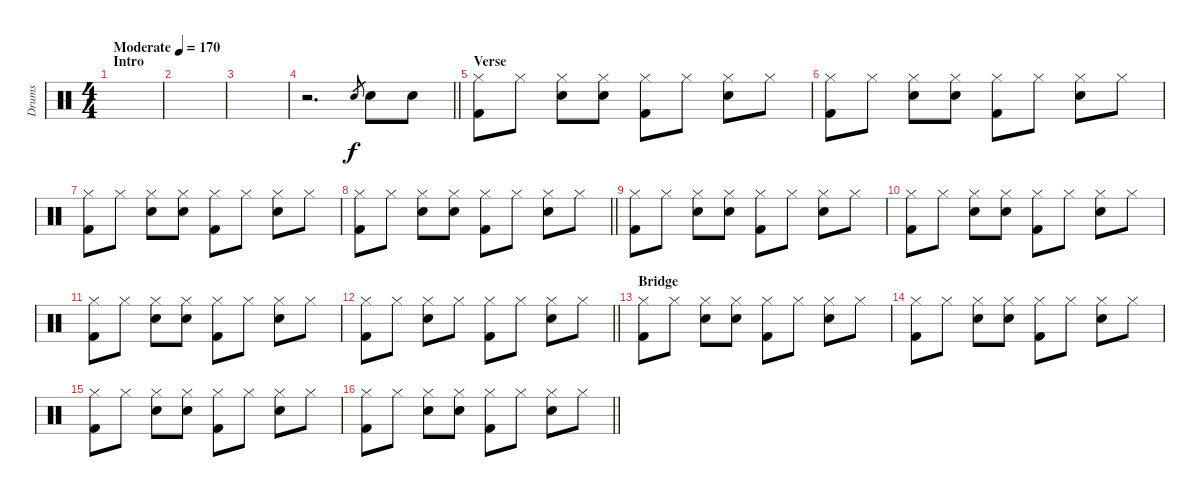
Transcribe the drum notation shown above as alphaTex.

\track ("Drums" "Drums") {instrument percussion}
\staff {score}
\articulation defaults
\ts (4 4)
\section ("" "Intro")
\tempo (170 "Moderate")
\clef neutral
\ks c
|
|
|
\barLineRight lightlight
r.2{d} "Snare (hit) 2".8{gr} "Snare (hit) 2".8 "Snare (hit) 2".8 |
\section ("" "Verse")
("Hi-Hat (closed)" "Kick (hit) 2").8 "Hi-Hat (closed)".8 ("Hi-Hat (closed)" "Snare (hit) 2").8 ("Hi-Hat (closed)" "Snare (hit) 2").8 ("Hi-Hat (closed)" "Kick (hit) 2").8 "Hi-Hat (closed)".8 ("Hi-Hat (closed)" "Snare (hit) 2").8 "Hi-Hat (closed)".8 |
("Hi-Hat (closed)" "Kick (hit) 2").8 "Hi-Hat (closed)".8 ("Hi-Hat (closed)" "Snare (hit) 2").8 ("Hi-Hat (closed)" "Snare (hit) 2").8 ("Hi-Hat (closed)" "Kick (hit) 2").8 "Hi-Hat (closed)".8 ("Hi-Hat (closed)" "Snare (hit) 2").8 "Hi-Hat (closed)".8 |
("Hi-Hat (closed)" "Kick (hit) 2").8 "Hi-Hat (closed)".8 ("Hi-Hat (closed)" "Snare (hit) 2").8 ("Hi-Hat (closed)" "Snare (hit) 2").8 ("Hi-Hat (closed)" "Kick (hit) 2").8 "Hi-Hat (closed)".8 ("Hi-Hat (closed)" "Snare (hit) 2").8 "Hi-Hat (closed)".8 |
\barLineRight lightlight
("Hi-Hat (closed)" "Kick (hit) 2").8 "Hi-Hat (closed)".8 ("Hi-Hat (closed)" "Snare (hit) 2").8 ("Hi-Hat (closed)" "Snare (hit) 2").8 ("Hi-Hat (closed)" "Kick (hit) 2").8 "Hi-Hat (closed)".8 ("Hi-Hat (closed)" "Snare (hit) 2").8 "Hi-Hat (closed)".8 |
("Hi-Hat (closed)" "Kick (hit) 2").8 "Hi-Hat (closed)".8 ("Hi-Hat (closed)" "Snare (hit) 2").8 ("Hi-Hat (closed)" "Snare (hit) 2").8 ("Hi-Hat (closed)" "Kick (hit) 2").8 "Hi-Hat (closed)".8 ("Hi-Hat (closed)" "Snare (hit) 2").8 "Hi-Hat (closed)".8 |
("Hi-Hat (closed)" "Kick (hit) 2").8 "Hi-Hat (closed)".8 ("Hi-Hat (closed)" "Snare (hit) 2").8 ("Hi-Hat (closed)" "Snare (hit) 2").8 ("Hi-Hat (closed)" "Kick (hit) 2").8 "Hi-Hat (closed)".8 ("Hi-Hat (closed)" "Snare (hit) 2").8 "Hi-Hat (closed)".8 |
("Hi-Hat (closed)" "Kick (hit) 2").8 "Hi-Hat (closed)".8 ("Hi-Hat (closed)" "Snare (hit) 2").8 ("Hi-Hat (closed)" "Snare (hit) 2").8 ("Hi-Hat (closed)" "Kick (hit) 2").8 "Hi-Hat (closed)".8 ("Hi-Hat (closed)" "Snare (hit) 2").8 "Hi-Hat (closed)".8 |
\barLineRight lightlight
("Hi-Hat (closed)" "Kick (hit) 2").8 "Hi-Hat (closed)".8 ("Hi-Hat (closed)" "Snare (hit) 2").8 "Hi-Hat (closed)".8 ("Hi-Hat (closed)" "Kick (hit) 2").8 "Hi-Hat (closed)".8 ("Hi-Hat (closed)" "Snare (hit) 2").8 "Hi-Hat (closed)".8 |
\section ("" "Bridge")
("Hi-Hat (closed)" "Kick (hit) 2").8 "Hi-Hat (closed)".8 ("Hi-Hat (closed)" "Snare (hit) 2").8 ("Hi-Hat (closed)" "Snare (hit) 2").8 ("Hi-Hat (closed)" "Kick (hit) 2").8 "Hi-Hat (closed)".8 ("Hi-Hat (closed)" "Snare (hit) 2").8 "Hi-Hat (closed)".8 |
("Hi-Hat (closed)" "Kick (hit) 2").8 "Hi-Hat (closed)".8 ("Hi-Hat (closed)" "Snare (hit) 2").8 ("Hi-Hat (closed)" "Snare (hit) 2").8 ("Hi-Hat (closed)" "Kick (hit) 2").8 "Hi-Hat (closed)".8 ("Hi-Hat (closed)" "Snare (hit) 2").8 "Hi-Hat (closed)".8 |
("Hi-Hat (closed)" "Kick (hit) 2").8 "Hi-Hat (closed)".8 ("Hi-Hat (closed)" "Snare (hit) 2").8 ("Hi-Hat (closed)" "Snare (hit) 2").8 ("Hi-Hat (closed)" "Kick (hit) 2").8 "Hi-Hat (closed)".8 ("Hi-Hat (closed)" "Snare (hit) 2").8 "Hi-Hat (closed)".8 |
\barLineRight lightlight
("Hi-Hat (closed)" "Kick (hit) 2").8 "Hi-Hat (closed)".8 ("Hi-Hat (closed)" "Snare (hit) 2").8 ("Hi-Hat (closed)" "Snare (hit) 2").8 ("Hi-Hat (closed)" "Kick (hit) 2").8 "Hi-Hat (closed)".8 ("Hi-Hat (closed)" "Snare (hit) 2").8 "Hi-Hat (closed)".8
